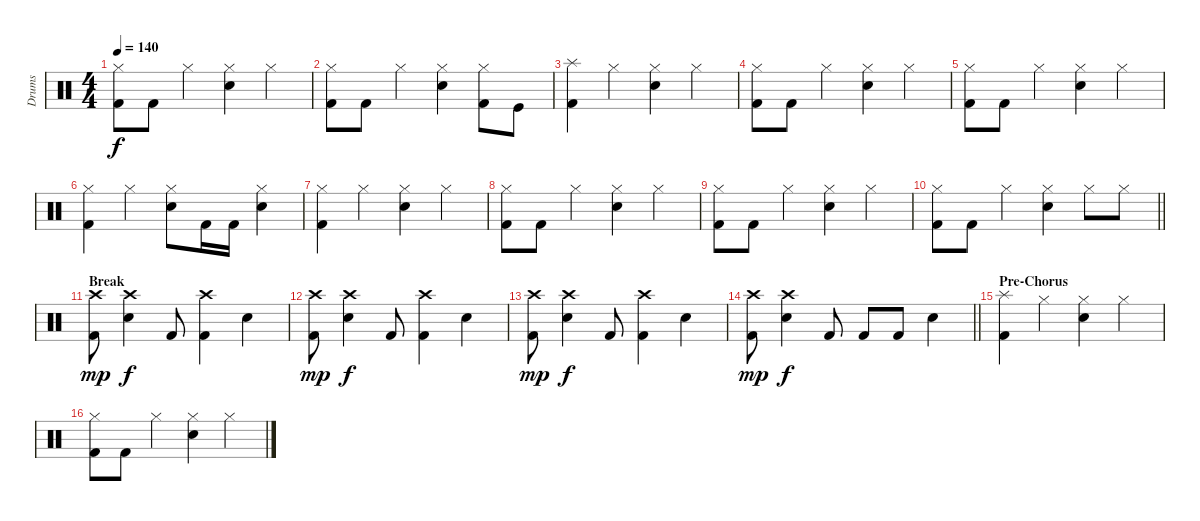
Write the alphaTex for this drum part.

\track ("Drums" "Drums") {instrument percussion}
\staff {score}
\articulation defaults
\ts (4 4)
\tempo 140
\clef neutral
\ks c
("Hi-Hat (closed)" "Kick (hit) 2").8{dy f} "Kick (hit) 2".8 "Hi-Hat (closed)".4 ("Hi-Hat (closed)" "Snare (hit) 2").4 "Hi-Hat (closed)".4 |
("Hi-Hat (closed)" "Kick (hit) 2").8 "Kick (hit) 2".8 "Hi-Hat (closed)".4 ("Hi-Hat (closed)" "Snare (hit) 2").4 ("Hi-Hat (closed)" "Kick (hit) 2").8 "Kick (hit)".8 |
("Splash (hit)" "Kick (hit) 2").4 "Hi-Hat (closed)".4 ("Hi-Hat (closed)" "Snare (hit) 2").4 "Hi-Hat (closed)".4 |
("Hi-Hat (closed)" "Kick (hit) 2").8 "Kick (hit) 2".8 "Hi-Hat (closed)".4 ("Hi-Hat (closed)" "Snare (hit) 2").4 "Hi-Hat (closed)".4 |
("Hi-Hat (closed)" "Kick (hit) 2").8 "Kick (hit) 2".8 "Hi-Hat (closed)".4 ("Hi-Hat (closed)" "Snare (hit) 2").4 "Hi-Hat (closed)".4 |
("Hi-Hat (closed)" "Kick (hit) 2").4 "Hi-Hat (closed)".4 ("Hi-Hat (closed)" "Snare (hit) 2").8 "Kick (hit) 2".16 "Kick (hit) 2".16 ("Hi-Hat (closed)" "Snare (hit) 2").4 |
("Hi-Hat (closed)" "Kick (hit) 2").4 "Hi-Hat (closed)".4 ("Hi-Hat (closed)" "Snare (hit) 2").4 "Hi-Hat (closed)".4 |
("Hi-Hat (closed)" "Kick (hit) 2").8 "Kick (hit) 2".8 "Hi-Hat (closed)".4 ("Hi-Hat (closed)" "Snare (hit) 2").4 "Hi-Hat (closed)".4 |
("Hi-Hat (closed)" "Kick (hit) 2").8 "Kick (hit) 2".8 "Hi-Hat (closed)".4 ("Hi-Hat (closed)" "Snare (hit) 2").4 "Hi-Hat (closed)".4 |
\barLineRight lightlight
("Hi-Hat (closed)" "Kick (hit) 2").8 "Kick (hit) 2".8 "Hi-Hat (closed)".4 ("Hi-Hat (closed)" "Snare (hit) 2").4 "Hi-Hat (closed)".8 "Hi-Hat (closed)".8 |
\section ("" "Break")
("Crash high (hit)" "Kick (hit) 2").8{dy mp} ("Crash high (hit)" "Snare (hit) 2").4{dy f} "Kick (hit) 2".8 ("Crash high (hit)" "Kick (hit) 2").4 "Snare (hit) 2".4 |
("Crash high (hit)" "Kick (hit) 2").8{dy mp} ("Crash high (hit)" "Snare (hit) 2").4{dy f} "Kick (hit) 2".8 ("Crash high (hit)" "Kick (hit) 2").4 "Snare (hit) 2".4 |
("Crash high (hit)" "Kick (hit) 2").8{dy mp} ("Crash high (hit)" "Snare (hit) 2").4{dy f} "Kick (hit) 2".8 ("Crash high (hit)" "Kick (hit) 2").4 "Snare (hit) 2".4 |
\barLineRight lightlight
("Crash high (hit)" "Kick (hit) 2").8{dy mp} ("Crash high (hit)" "Snare (hit) 2").4{dy f} "Kick (hit) 2".8 "Kick (hit) 2".8 "Kick (hit) 2".8 "Snare (hit) 2".4 |
\section ("" "Pre-Chorus")
("Splash (hit)" "Kick (hit) 2").4 "Hi-Hat (closed)".4 ("Hi-Hat (closed)" "Snare (hit) 2").4 "Hi-Hat (closed)".4 |
("Hi-Hat (closed)" "Kick (hit) 2").8 "Kick (hit) 2".8 "Hi-Hat (closed)".4 ("Hi-Hat (closed)" "Snare (hit) 2").4 "Hi-Hat (closed)".4
